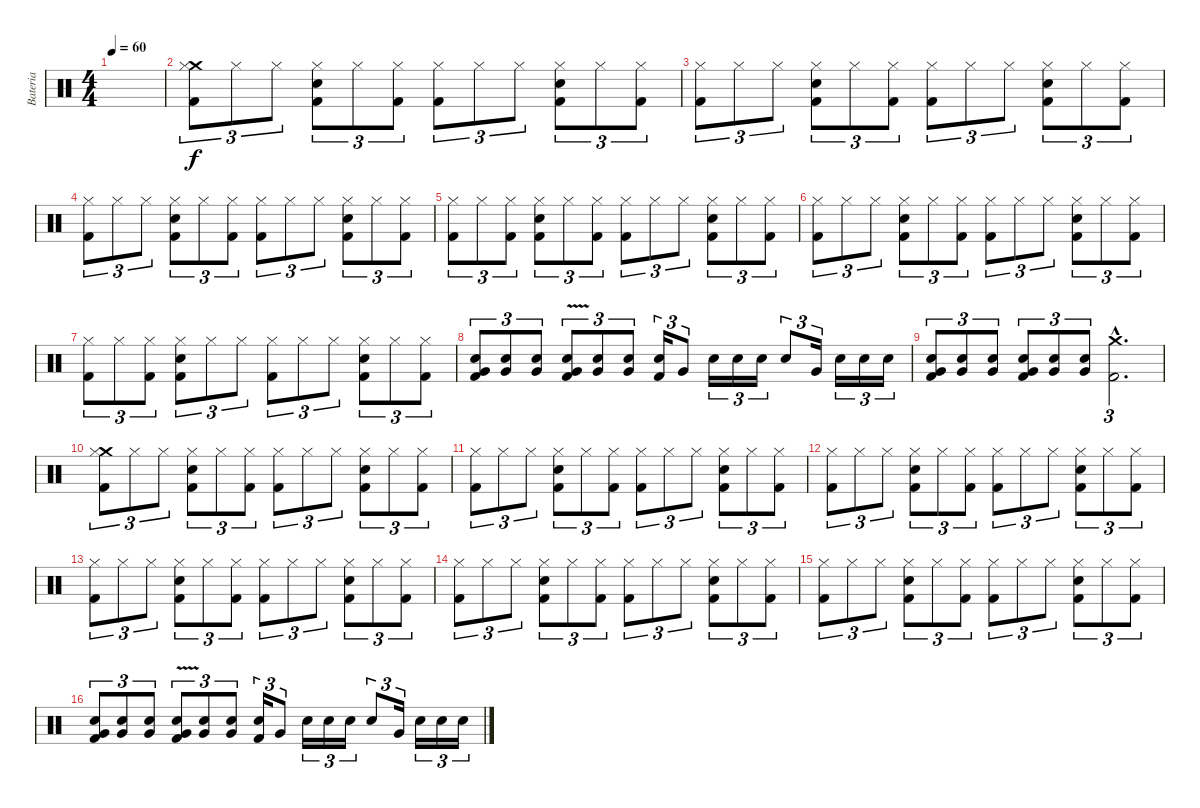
\track ("Bateria" "Bateria") {instrument percussion}
\staff {score}
\articulation defaults
\ts (4 4)
\tempo 60
\clef neutral
\ks c
|
("Crash medium (hit)" "Hi-Hat (closed)" "Kick (hit) 2").8{tu (3 2)} "Hi-Hat (closed)".8{tu (3 2)} "Hi-Hat (closed)".8{tu (3 2)} ("Snare (hit) 2" "Hi-Hat (closed)" "Kick (hit) 2").8{tu (3 2)} "Hi-Hat (closed)".8{tu (3 2)} ("Hi-Hat (closed)" "Kick (hit) 2").8{tu (3 2)} ("Hi-Hat (closed)" "Kick (hit) 2").8{tu (3 2)} "Hi-Hat (closed)".8{tu (3 2)} "Hi-Hat (closed)".8{tu (3 2)} ("Snare (hit) 2" "Hi-Hat (closed)" "Kick (hit) 2").8{tu (3 2)} "Hi-Hat (closed)".8{tu (3 2)} ("Hi-Hat (closed)" "Kick (hit) 2").8{tu (3 2)} |
("Hi-Hat (closed)" "Kick (hit) 2").8{tu (3 2)} "Hi-Hat (closed)".8{tu (3 2)} "Hi-Hat (closed)".8{tu (3 2)} ("Snare (hit) 2" "Hi-Hat (closed)" "Kick (hit) 2").8{tu (3 2)} "Hi-Hat (closed)".8{tu (3 2)} ("Hi-Hat (closed)" "Kick (hit) 2").8{tu (3 2)} ("Hi-Hat (closed)" "Kick (hit) 2").8{tu (3 2)} "Hi-Hat (closed)".8{tu (3 2)} "Hi-Hat (closed)".8{tu (3 2)} ("Snare (hit) 2" "Hi-Hat (closed)" "Kick (hit) 2").8{tu (3 2)} "Hi-Hat (closed)".8{tu (3 2)} ("Hi-Hat (closed)" "Kick (hit) 2").8{tu (3 2)} |
("Hi-Hat (closed)" "Kick (hit) 2").8{tu (3 2)} "Hi-Hat (closed)".8{tu (3 2)} "Hi-Hat (closed)".8{tu (3 2)} ("Snare (hit) 2" "Hi-Hat (closed)" "Kick (hit) 2").8{tu (3 2)} "Hi-Hat (closed)".8{tu (3 2)} ("Hi-Hat (closed)" "Kick (hit) 2").8{tu (3 2)} ("Hi-Hat (closed)" "Kick (hit) 2").8{tu (3 2)} "Hi-Hat (closed)".8{tu (3 2)} "Hi-Hat (closed)".8{tu (3 2)} ("Snare (hit) 2" "Hi-Hat (closed)" "Kick (hit) 2").8{tu (3 2)} "Hi-Hat (closed)".8{tu (3 2)} ("Hi-Hat (closed)" "Kick (hit) 2").8{tu (3 2)} |
("Hi-Hat (closed)" "Kick (hit) 2").8{tu (3 2)} "Hi-Hat (closed)".8{tu (3 2)} ("Hi-Hat (closed)" "Kick (hit) 2").8{tu (3 2)} ("Snare (hit) 2" "Hi-Hat (closed)" "Kick (hit) 2").8{tu (3 2)} "Hi-Hat (closed)".8{tu (3 2)} ("Hi-Hat (closed)" "Kick (hit) 2").8{tu (3 2)} ("Hi-Hat (closed)" "Kick (hit) 2").8{tu (3 2)} "Hi-Hat (closed)".8{tu (3 2)} "Hi-Hat (closed)".8{tu (3 2)} ("Snare (hit) 2" "Hi-Hat (closed)" "Kick (hit) 2").8{tu (3 2)} "Hi-Hat (closed)".8{tu (3 2)} ("Hi-Hat (closed)" "Kick (hit) 2").8{tu (3 2)} |
("Hi-Hat (closed)" "Kick (hit) 2").8{tu (3 2)} "Hi-Hat (closed)".8{tu (3 2)} "Hi-Hat (closed)".8{tu (3 2)} ("Snare (hit) 2" "Hi-Hat (closed)" "Kick (hit) 2").8{tu (3 2)} "Hi-Hat (closed)".8{tu (3 2)} ("Hi-Hat (closed)" "Kick (hit) 2").8{tu (3 2)} ("Hi-Hat (closed)" "Kick (hit) 2").8{tu (3 2)} "Hi-Hat (closed)".8{tu (3 2)} "Hi-Hat (closed)".8{tu (3 2)} ("Snare (hit) 2" "Hi-Hat (closed)" "Kick (hit) 2").8{tu (3 2)} "Hi-Hat (closed)".8{tu (3 2)} ("Hi-Hat (closed)" "Kick (hit) 2").8{tu (3 2)} |
("Hi-Hat (closed)" "Kick (hit) 2").8{tu (3 2)} "Hi-Hat (closed)".8{tu (3 2)} ("Hi-Hat (closed)" "Kick (hit) 2").8{tu (3 2)} ("Snare (hit) 2" "Hi-Hat (closed)" "Kick (hit) 2").8{tu (3 2)} "Hi-Hat (closed)".8{tu (3 2)} "Hi-Hat (closed)".8{tu (3 2)} ("Hi-Hat (closed)" "Kick (hit) 2").8{tu (3 2)} "Hi-Hat (closed)".8{tu (3 2)} "Hi-Hat (closed)".8{tu (3 2)} ("Snare (hit) 2" "Hi-Hat (closed)" "Kick (hit) 2").8{tu (3 2)} "Hi-Hat (closed)".8{tu (3 2)} ("Hi-Hat (closed)" "Kick (hit) 2").8{tu (3 2)} |
("Snare (hit) 2" "Very Low Tom (hit)" "Kick (hit) 2").8{tu (3 2)} ("Snare (hit) 2" "Very Low Tom (hit)").8{tu (3 2)} ("Snare (hit) 2" "Very Low Tom (hit)").8{tu (3 2)} ("Snare (hit) 2"{v} "Very Low Tom (hit)"{v} "Kick (hit) 2"{v}).8{tu (3 2)} ("Snare (hit) 2" "Very Low Tom (hit)").8{tu (3 2)} ("Snare (hit) 2" "Very Low Tom (hit)").8{tu (3 2)} ("Snare (hit) 2" "Kick (hit) 2").16{tu (3 2)} "Very Low Tom (hit)".8{tu (3 2)} "Snare (hit) 2".16{tu (3 2)} "Snare (hit) 2".16{tu (3 2)} "Snare (hit) 2".16{tu (3 2)} "Snare (hit) 2".8{tu (3 2)} "Very Low Tom (hit)".16{tu (3 2)} "Snare (hit) 2".16{tu (3 2)} "Snare (hit) 2".16{tu (3 2)} "Snare (hit) 2".16{tu (3 2)} |
("Snare (hit) 2" "Very Low Tom (hit)" "Kick (hit) 2").8{tu (3 2)} ("Snare (hit) 2" "Very Low Tom (hit)").8{tu (3 2)} ("Snare (hit) 2" "Very Low Tom (hit)").8{tu (3 2)} ("Snare (hit) 2" "Very Low Tom (hit)" "Kick (hit) 2").8{tu (3 2)} ("Snare (hit) 2" "Very Low Tom (hit)").8{tu (3 2)} ("Snare (hit) 2" "Very Low Tom (hit)").8{tu (3 2)} ("Crash medium (hit)"{hac} "Kick (hit) 2"{hac}).2{d tu (3 2)} |
("Crash medium (hit)" "Hi-Hat (closed)" "Kick (hit) 2").8{tu (3 2)} "Hi-Hat (closed)".8{tu (3 2)} "Hi-Hat (closed)".8{tu (3 2)} ("Snare (hit) 2" "Hi-Hat (closed)" "Kick (hit) 2").8{tu (3 2)} "Hi-Hat (closed)".8{tu (3 2)} ("Hi-Hat (closed)" "Kick (hit) 2").8{tu (3 2)} ("Hi-Hat (closed)" "Kick (hit) 2").8{tu (3 2)} "Hi-Hat (closed)".8{tu (3 2)} "Hi-Hat (closed)".8{tu (3 2)} ("Snare (hit) 2" "Hi-Hat (closed)" "Kick (hit) 2").8{tu (3 2)} "Hi-Hat (closed)".8{tu (3 2)} ("Hi-Hat (closed)" "Kick (hit) 2").8{tu (3 2)} |
("Hi-Hat (closed)" "Kick (hit) 2").8{tu (3 2)} "Hi-Hat (closed)".8{tu (3 2)} "Hi-Hat (closed)".8{tu (3 2)} ("Snare (hit) 2" "Hi-Hat (closed)" "Kick (hit) 2").8{tu (3 2)} "Hi-Hat (closed)".8{tu (3 2)} ("Hi-Hat (closed)" "Kick (hit) 2").8{tu (3 2)} ("Hi-Hat (closed)" "Kick (hit) 2").8{tu (3 2)} "Hi-Hat (closed)".8{tu (3 2)} "Hi-Hat (closed)".8{tu (3 2)} ("Snare (hit) 2" "Hi-Hat (closed)" "Kick (hit) 2").8{tu (3 2)} "Hi-Hat (closed)".8{tu (3 2)} ("Hi-Hat (closed)" "Kick (hit) 2").8{tu (3 2)} |
("Hi-Hat (closed)" "Kick (hit) 2").8{tu (3 2)} "Hi-Hat (closed)".8{tu (3 2)} "Hi-Hat (closed)".8{tu (3 2)} ("Snare (hit) 2" "Hi-Hat (closed)" "Kick (hit) 2").8{tu (3 2)} "Hi-Hat (closed)".8{tu (3 2)} ("Hi-Hat (closed)" "Kick (hit) 2").8{tu (3 2)} ("Hi-Hat (closed)" "Kick (hit) 2").8{tu (3 2)} "Hi-Hat (closed)".8{tu (3 2)} "Hi-Hat (closed)".8{tu (3 2)} ("Snare (hit) 2" "Hi-Hat (closed)" "Kick (hit) 2").8{tu (3 2)} "Hi-Hat (closed)".8{tu (3 2)} ("Hi-Hat (closed)" "Kick (hit) 2").8{tu (3 2)} |
("Hi-Hat (closed)" "Kick (hit) 2").8{tu (3 2)} "Hi-Hat (closed)".8{tu (3 2)} "Hi-Hat (closed)".8{tu (3 2)} ("Snare (hit) 2" "Hi-Hat (closed)" "Kick (hit) 2").8{tu (3 2)} "Hi-Hat (closed)".8{tu (3 2)} ("Hi-Hat (closed)" "Kick (hit) 2").8{tu (3 2)} ("Hi-Hat (closed)" "Kick (hit) 2").8{tu (3 2)} "Hi-Hat (closed)".8{tu (3 2)} "Hi-Hat (closed)".8{tu (3 2)} ("Snare (hit) 2" "Hi-Hat (closed)" "Kick (hit) 2").8{tu (3 2)} "Hi-Hat (closed)".8{tu (3 2)} ("Hi-Hat (closed)" "Kick (hit) 2").8{tu (3 2)} |
("Hi-Hat (closed)" "Kick (hit) 2").8{tu (3 2)} "Hi-Hat (closed)".8{tu (3 2)} "Hi-Hat (closed)".8{tu (3 2)} ("Snare (hit) 2" "Hi-Hat (closed)" "Kick (hit) 2").8{tu (3 2)} "Hi-Hat (closed)".8{tu (3 2)} ("Hi-Hat (closed)" "Kick (hit) 2").8{tu (3 2)} ("Hi-Hat (closed)" "Kick (hit) 2").8{tu (3 2)} "Hi-Hat (closed)".8{tu (3 2)} "Hi-Hat (closed)".8{tu (3 2)} ("Snare (hit) 2" "Hi-Hat (closed)" "Kick (hit) 2").8{tu (3 2)} "Hi-Hat (closed)".8{tu (3 2)} ("Hi-Hat (closed)" "Kick (hit) 2").8{tu (3 2)} |
("Hi-Hat (closed)" "Kick (hit) 2").8{tu (3 2)} "Hi-Hat (closed)".8{tu (3 2)} "Hi-Hat (closed)".8{tu (3 2)} ("Snare (hit) 2" "Hi-Hat (closed)" "Kick (hit) 2").8{tu (3 2)} "Hi-Hat (closed)".8{tu (3 2)} ("Hi-Hat (closed)" "Kick (hit) 2").8{tu (3 2)} ("Hi-Hat (closed)" "Kick (hit) 2").8{tu (3 2)} "Hi-Hat (closed)".8{tu (3 2)} "Hi-Hat (closed)".8{tu (3 2)} ("Snare (hit) 2" "Hi-Hat (closed)" "Kick (hit) 2").8{tu (3 2)} "Hi-Hat (closed)".8{tu (3 2)} ("Hi-Hat (closed)" "Kick (hit) 2").8{tu (3 2)} |
("Snare (hit) 2" "Very Low Tom (hit)" "Kick (hit) 2").8{tu (3 2)} ("Snare (hit) 2" "Very Low Tom (hit)").8{tu (3 2)} ("Snare (hit) 2" "Very Low Tom (hit)").8{tu (3 2)} ("Snare (hit) 2"{v} "Very Low Tom (hit)"{v} "Kick (hit) 2"{v}).8{tu (3 2)} ("Snare (hit) 2" "Very Low Tom (hit)").8{tu (3 2)} ("Snare (hit) 2" "Very Low Tom (hit)").8{tu (3 2)} ("Snare (hit) 2" "Kick (hit) 2").16{tu (3 2)} "Very Low Tom (hit)".8{tu (3 2)} "Snare (hit) 2".16{tu (3 2)} "Snare (hit) 2".16{tu (3 2)} "Snare (hit) 2".16{tu (3 2)} "Snare (hit) 2".8{tu (3 2)} "Very Low Tom (hit)".16{tu (3 2)} "Snare (hit) 2".16{tu (3 2)} "Snare (hit) 2".16{tu (3 2)} "Snare (hit) 2".16{tu (3 2)}
